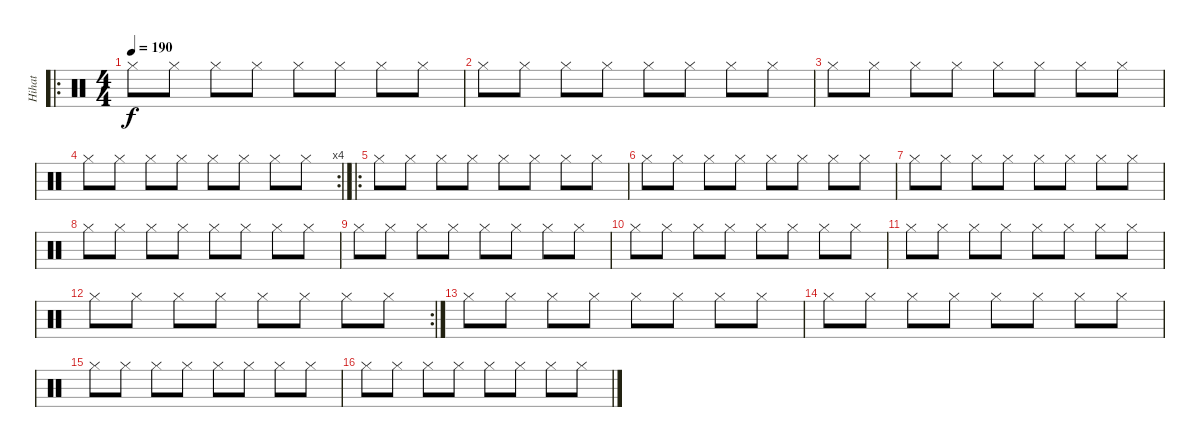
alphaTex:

\track ("Hihat" "Hihat") {instrument percussion}
\staff {score}
\articulation defaults
\ro
\ts (4 4)
\tempo 190
\clef neutral
\ks c "Hi-Hat (closed)".8{dy f} "Hi-Hat (closed)".8 "Hi-Hat (closed)".8 "Hi-Hat (closed)".8 "Hi-Hat (closed)".8 "Hi-Hat (closed)".8 "Hi-Hat (closed)".8 "Hi-Hat (closed)".8
|
"Hi-Hat (closed)".8 "Hi-Hat (closed)".8 "Hi-Hat (closed)".8 "Hi-Hat (closed)".8 "Hi-Hat (closed)".8 "Hi-Hat (closed)".8 "Hi-Hat (closed)".8 "Hi-Hat (closed)".8 |
"Hi-Hat (closed)".8 "Hi-Hat (closed)".8 "Hi-Hat (closed)".8 "Hi-Hat (closed)".8 "Hi-Hat (closed)".8 "Hi-Hat (closed)".8 "Hi-Hat (closed)".8 "Hi-Hat (closed)".8 |
\rc 4 "Hi-Hat (closed)".8 "Hi-Hat (closed)".8 "Hi-Hat (closed)".8 "Hi-Hat (closed)".8 "Hi-Hat (closed)".8 "Hi-Hat (closed)".8 "Hi-Hat (closed)".8 "Hi-Hat (closed)".8
|
\ro "Hi-Hat (closed)".8 "Hi-Hat (closed)".8 "Hi-Hat (closed)".8 "Hi-Hat (closed)".8 "Hi-Hat (closed)".8 "Hi-Hat (closed)".8 "Hi-Hat (closed)".8 "Hi-Hat (closed)".8
|
"Hi-Hat (closed)".8 "Hi-Hat (closed)".8 "Hi-Hat (closed)".8 "Hi-Hat (closed)".8 "Hi-Hat (closed)".8 "Hi-Hat (closed)".8 "Hi-Hat (closed)".8 "Hi-Hat (closed)".8 |
"Hi-Hat (closed)".8 "Hi-Hat (closed)".8 "Hi-Hat (closed)".8 "Hi-Hat (closed)".8 "Hi-Hat (closed)".8 "Hi-Hat (closed)".8 "Hi-Hat (closed)".8 "Hi-Hat (closed)".8 |
"Hi-Hat (closed)".8 "Hi-Hat (closed)".8 "Hi-Hat (closed)".8 "Hi-Hat (closed)".8 "Hi-Hat (closed)".8 "Hi-Hat (closed)".8 "Hi-Hat (closed)".8 "Hi-Hat (closed)".8 |
"Hi-Hat (closed)".8 "Hi-Hat (closed)".8 "Hi-Hat (closed)".8 "Hi-Hat (closed)".8 "Hi-Hat (closed)".8 "Hi-Hat (closed)".8 "Hi-Hat (closed)".8 "Hi-Hat (closed)".8 |
"Hi-Hat (closed)".8 "Hi-Hat (closed)".8 "Hi-Hat (closed)".8 "Hi-Hat (closed)".8 "Hi-Hat (closed)".8 "Hi-Hat (closed)".8 "Hi-Hat (closed)".8 "Hi-Hat (closed)".8 |
"Hi-Hat (closed)".8 "Hi-Hat (closed)".8 "Hi-Hat (closed)".8 "Hi-Hat (closed)".8 "Hi-Hat (closed)".8 "Hi-Hat (closed)".8 "Hi-Hat (closed)".8 "Hi-Hat (closed)".8 |
\rc 2 "Hi-Hat (closed)".8 "Hi-Hat (closed)".8 "Hi-Hat (closed)".8 "Hi-Hat (closed)".8 "Hi-Hat (closed)".8 "Hi-Hat (closed)".8 "Hi-Hat (closed)".8 "Hi-Hat (closed)".8
|
"Hi-Hat (closed)".8 "Hi-Hat (closed)".8 "Hi-Hat (closed)".8 "Hi-Hat (closed)".8 "Hi-Hat (closed)".8 "Hi-Hat (closed)".8 "Hi-Hat (closed)".8 "Hi-Hat (closed)".8 |
"Hi-Hat (closed)".8 "Hi-Hat (closed)".8 "Hi-Hat (closed)".8 "Hi-Hat (closed)".8 "Hi-Hat (closed)".8 "Hi-Hat (closed)".8 "Hi-Hat (closed)".8 "Hi-Hat (closed)".8 |
"Hi-Hat (closed)".8 "Hi-Hat (closed)".8 "Hi-Hat (closed)".8 "Hi-Hat (closed)".8 "Hi-Hat (closed)".8 "Hi-Hat (closed)".8 "Hi-Hat (closed)".8 "Hi-Hat (closed)".8 |
"Hi-Hat (closed)".8 "Hi-Hat (closed)".8 "Hi-Hat (closed)".8 "Hi-Hat (closed)".8 "Hi-Hat (closed)".8 "Hi-Hat (closed)".8 "Hi-Hat (closed)".8 "Hi-Hat (closed)".8
